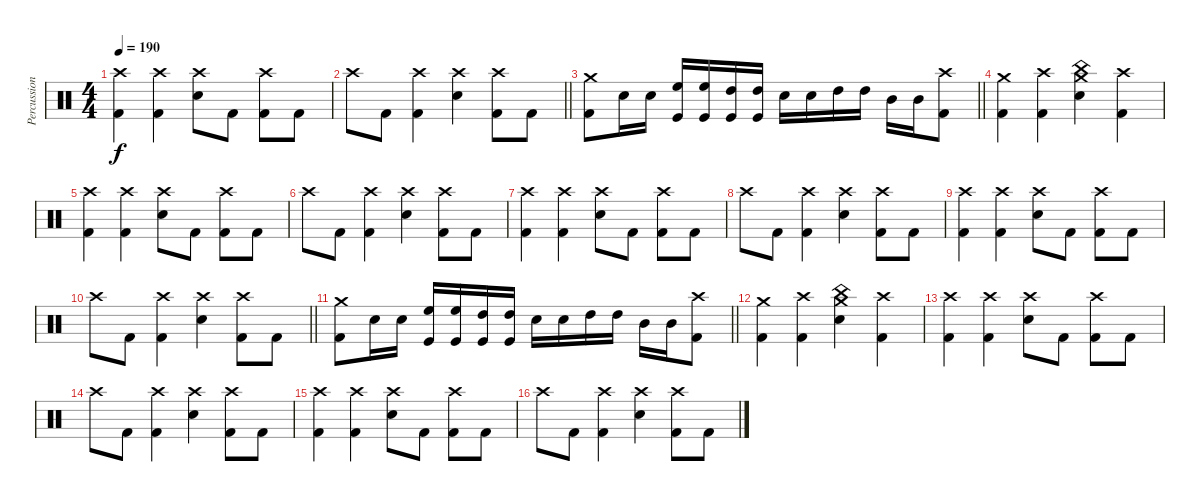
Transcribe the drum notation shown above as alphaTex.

\track ("Percussions" "Percussion") {instrument percussion}
\staff {score}
\articulation defaults
\ts (4 4)
\tempo 190
\clef neutral
\ks c
("Crash high (hit)" "Kick (hit) 2").4{dy f} ("Crash high (hit)" "Kick (hit) 2").4 ("Crash high (hit)" "Electric Snare (hit)").8 "Kick (hit) 2".8 ("Crash high (hit)" "Kick (hit) 2").8 "Kick (hit) 2".8 |
\barLineRight lightlight "Crash high (hit)".8 "Kick (hit) 2".8
("Crash high (hit)" "Kick (hit) 2").4 ("Crash high (hit)" "Electric Snare (hit)").4 ("Crash high (hit)" "Kick (hit) 2").8 "Kick (hit) 2".8 |
\barLineRight lightlight
("Crash medium (hit)" "Kick (hit) 2").8 "Electric Snare (hit)".16 "Electric Snare (hit)".16 ("High Floor Tom (hit)" "Kick (hit)").16 ("High Floor Tom (hit)" "Kick (hit)").16 ("High Tom (hit)" "Kick (hit)").16 ("High Tom (hit)" "Kick (hit)").16 "Electric Snare (hit)".16 "Electric Snare (hit)".16 "High Tom (hit)".16 "High Tom (hit)".16 "Mid Tom (hit)".16 "Mid Tom (hit)".16 ("Crash high (hit)" "Kick (hit) 2").8 |
("Crash medium (hit)" "Kick (hit) 2").4 ("Crash high (hit)" "Kick (hit) 2").4 ("Crash medium (hit)" "China (hit)" "Electric Snare (hit)").4 ("Crash high (hit)" "Kick (hit) 2").4 |
("Crash high (hit)" "Kick (hit) 2").4 ("Crash high (hit)" "Kick (hit) 2").4 ("Crash high (hit)" "Electric Snare (hit)").8 "Kick (hit) 2".8 ("Crash high (hit)" "Kick (hit) 2").8 "Kick (hit) 2".8 |
"Crash high (hit)".8 "Kick (hit) 2".8 ("Crash high (hit)" "Kick (hit) 2").4 ("Crash high (hit)" "Electric Snare (hit)").4 ("Crash high (hit)" "Kick (hit) 2").8 "Kick (hit) 2".8 |
("Crash high (hit)" "Kick (hit) 2").4 ("Crash high (hit)" "Kick (hit) 2").4 ("Crash high (hit)" "Electric Snare (hit)").8 "Kick (hit) 2".8 ("Crash high (hit)" "Kick (hit) 2").8 "Kick (hit) 2".8 |
"Crash high (hit)".8 "Kick (hit) 2".8 ("Crash high (hit)" "Kick (hit) 2").4 ("Crash high (hit)" "Electric Snare (hit)").4 ("Crash high (hit)" "Kick (hit) 2").8 "Kick (hit) 2".8 |
("Crash high (hit)" "Kick (hit) 2").4 ("Crash high (hit)" "Kick (hit) 2").4 ("Crash high (hit)" "Electric Snare (hit)").8 "Kick (hit) 2".8 ("Crash high (hit)" "Kick (hit) 2").8 "Kick (hit) 2".8 |
\barLineRight lightlight "Crash high (hit)".8 "Kick (hit) 2".8
("Crash high (hit)" "Kick (hit) 2").4 ("Crash high (hit)" "Electric Snare (hit)").4 ("Crash high (hit)" "Kick (hit) 2").8 "Kick (hit) 2".8 |
\barLineRight lightlight
("Crash medium (hit)" "Kick (hit) 2").8 "Electric Snare (hit)".16 "Electric Snare (hit)".16 ("High Floor Tom (hit)" "Kick (hit)").16 ("High Floor Tom (hit)" "Kick (hit)").16 ("High Tom (hit)" "Kick (hit)").16 ("High Tom (hit)" "Kick (hit)").16 "Electric Snare (hit)".16 "Electric Snare (hit)".16 "High Tom (hit)".16 "High Tom (hit)".16 "Mid Tom (hit)".16 "Mid Tom (hit)".16 ("Crash high (hit)" "Kick (hit) 2").8 |
("Crash medium (hit)" "Kick (hit) 2").4 ("Crash high (hit)" "Kick (hit) 2").4 ("Crash medium (hit)" "China (hit)" "Electric Snare (hit)").4 ("Crash high (hit)" "Kick (hit) 2").4 |
("Crash high (hit)" "Kick (hit) 2").4 ("Crash high (hit)" "Kick (hit) 2").4 ("Crash high (hit)" "Electric Snare (hit)").8 "Kick (hit) 2".8 ("Crash high (hit)" "Kick (hit) 2").8 "Kick (hit) 2".8 |
"Crash high (hit)".8 "Kick (hit) 2".8 ("Crash high (hit)" "Kick (hit) 2").4 ("Crash high (hit)" "Electric Snare (hit)").4 ("Crash high (hit)" "Kick (hit) 2").8 "Kick (hit) 2".8 |
("Crash high (hit)" "Kick (hit) 2").4 ("Crash high (hit)" "Kick (hit) 2").4 ("Crash high (hit)" "Electric Snare (hit)").8 "Kick (hit) 2".8 ("Crash high (hit)" "Kick (hit) 2").8 "Kick (hit) 2".8 |
"Crash high (hit)".8 "Kick (hit) 2".8 ("Crash high (hit)" "Kick (hit) 2").4 ("Crash high (hit)" "Electric Snare (hit)").4 ("Crash high (hit)" "Kick (hit) 2").8 "Kick (hit) 2".8
